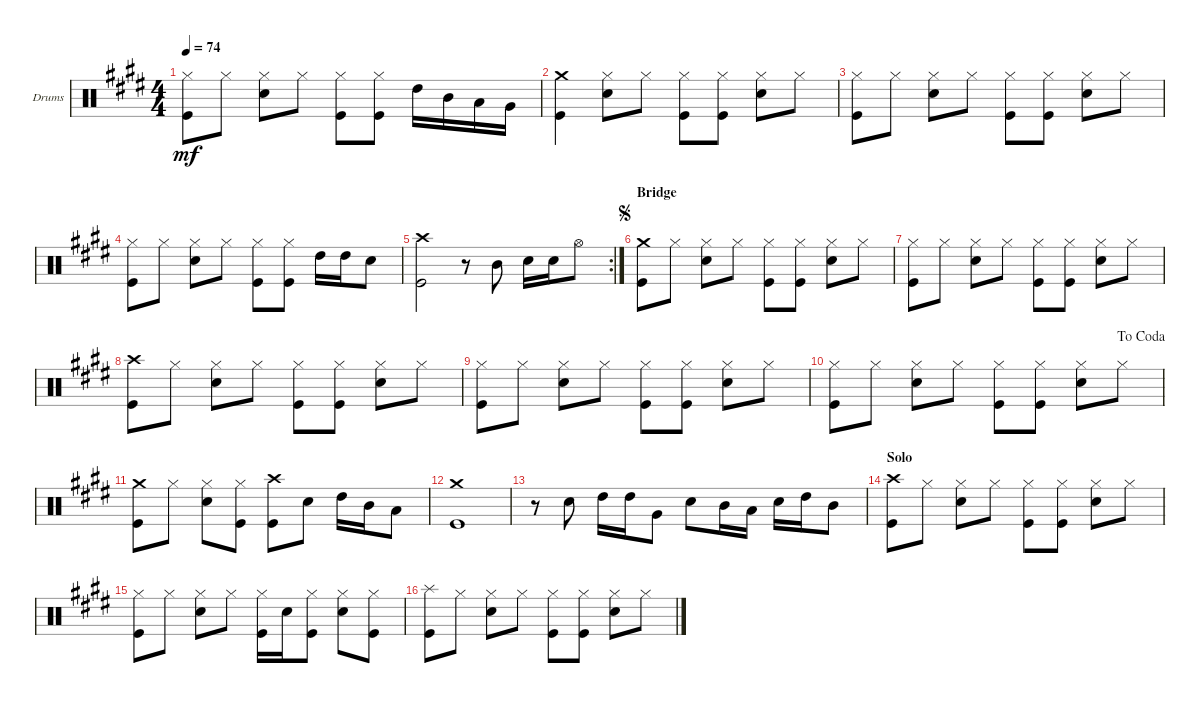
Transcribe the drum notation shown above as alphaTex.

\bracketExtendMode groupsimilarinstruments
\useSystemSignSeparator
\multiTrackTrackNamePolicy allsystems
\firstSystemTrackNameOrientation horizontal
\otherSystemsTrackNameOrientation horizontal
\track ("Drums" "Drums") {instrument percussion}
\staff {score}
\articulation defaults
\ts (4 4)
\tempo 74
\clef neutral
\ks c#minor
("Kick (hit)" "Hi-Hat (closed)").8{dy mf} "Hi-Hat (closed)".8 ("Snare (hit) 2" "Hi-Hat (closed)").8 "Hi-Hat (closed)".8 ("Kick (hit)" "Hi-Hat (closed)").8 ("Kick (hit)" "Hi-Hat (closed)").8 "High Tom (hit)".16 "Mid Tom (hit)".16 "Low Tom (hit)".16 "Very Low Tom (hit)".16 |
("Kick (hit)" "Crash medium (hit)").4 ("Snare (hit) 2" "Hi-Hat (closed)").8 "Hi-Hat (closed)".8 ("Kick (hit)" "Hi-Hat (closed)").8 ("Kick (hit)" "Hi-Hat (closed)").8 ("Snare (hit) 2" "Hi-Hat (closed)").8 "Hi-Hat (closed)".8 |
("Kick (hit)" "Hi-Hat (closed)").8 "Hi-Hat (closed)".8 ("Snare (hit) 2" "Hi-Hat (closed)").8 "Hi-Hat (closed)".8 ("Kick (hit)" "Hi-Hat (closed)").8 ("Kick (hit)" "Hi-Hat (closed)").8 ("Snare (hit) 2" "Hi-Hat (closed)").8 "Hi-Hat (closed)".8 |
("Kick (hit)" "Hi-Hat (closed)").8 "Hi-Hat (closed)".8 ("Snare (hit) 2" "Hi-Hat (closed)").8 "Hi-Hat (closed)".8 ("Kick (hit)" "Hi-Hat (closed)").8 ("Kick (hit)" "Hi-Hat (closed)").8 "High Tom (hit)".16 "High Tom (hit)".16 "Snare (hit) 2".8 |
\rc 2
("Kick (hit)" "Crash high (hit)").2 r.8 "Mid Tom (hit)".8 "Snare (hit) 2".16 "Snare (hit) 2".16 "Hi-Hat (open)".8 |
\section ("" "Bridge")
\jump segno
("Kick (hit)" "Crash medium (hit)").8 "Hi-Hat (closed)".8 ("Snare (hit) 2" "Hi-Hat (closed)").8 "Hi-Hat (closed)".8 ("Kick (hit)" "Hi-Hat (closed)").8 ("Kick (hit)" "Hi-Hat (closed)").8 ("Snare (hit) 2" "Hi-Hat (closed)").8 "Hi-Hat (closed)".8 |
("Kick (hit)" "Hi-Hat (closed)").8 "Hi-Hat (closed)".8 ("Snare (hit) 2" "Hi-Hat (closed)").8 "Hi-Hat (closed)".8 ("Kick (hit)" "Hi-Hat (closed)").8 ("Kick (hit)" "Hi-Hat (closed)").8 ("Snare (hit) 2" "Hi-Hat (closed)").8 "Hi-Hat (closed)".8 |
("Kick (hit)" "Crash high (hit)").8 "Hi-Hat (closed)".8 ("Snare (hit) 2" "Hi-Hat (closed)").8 "Hi-Hat (closed)".8 ("Kick (hit)" "Hi-Hat (closed)").8 ("Kick (hit)" "Hi-Hat (closed)").8 ("Snare (hit) 2" "Hi-Hat (closed)").8 "Hi-Hat (closed)".8 |
("Kick (hit)" "Hi-Hat (closed)").8 "Hi-Hat (closed)".8 ("Snare (hit) 2" "Hi-Hat (closed)").8 "Hi-Hat (closed)".8 ("Kick (hit)" "Hi-Hat (closed)").8 ("Kick (hit)" "Hi-Hat (closed)").8 ("Snare (hit) 2" "Hi-Hat (closed)").8 "Hi-Hat (closed)".8 |
\jump dacoda
("Kick (hit)" "Hi-Hat (closed)").8 "Hi-Hat (closed)".8 ("Snare (hit) 2" "Hi-Hat (closed)").8 "Hi-Hat (closed)".8 ("Kick (hit)" "Hi-Hat (closed)").8 ("Kick (hit)" "Hi-Hat (closed)").8 ("Snare (hit) 2" "Hi-Hat (closed)").8 "Hi-Hat (closed)".8 |
("Kick (hit)" "Crash medium (hit)").8 "Hi-Hat (closed)".8 ("Snare (hit) 2" "Hi-Hat (closed)").8 ("Kick (hit)" "Hi-Hat (closed)").8 ("Kick (hit)" "Crash high (hit)").8 "Snare (hit) 2".8 "High Tom (hit)".16 "Mid Tom (hit)".16 "Low Tom (hit)".8 |
("Kick (hit)" "Crash medium (hit)").1 |
r.8 "Snare (hit) 2".8 "High Tom (hit)".16 "High Tom (hit)".16 "Very Low Tom (hit)".8 "Snare (hit) 2".8 "Mid Tom (hit)".16 "Low Tom (hit)".16 "Snare (hit) 2".16 "High Tom (hit)".16 "Mid Tom (hit)".8 |
\section ("" "Solo")
("Kick (hit)" "Crash high (hit)").8 "Hi-Hat (closed)".8 ("Snare (hit) 2" "Hi-Hat (closed)").8 "Hi-Hat (closed)".8 ("Kick (hit)" "Hi-Hat (closed)").8 ("Kick (hit)" "Hi-Hat (closed)").8 ("Snare (hit) 2" "Hi-Hat (closed)").8 "Hi-Hat (closed)".8 |
("Kick (hit)" "Hi-Hat (closed)").8 "Hi-Hat (closed)".8 ("Snare (hit) 2" "Hi-Hat (closed)").8 "Hi-Hat (closed)".8 ("Kick (hit)" "Hi-Hat (closed)").16 "Snare (hit) 2".16 ("Kick (hit)" "Hi-Hat (closed)").8 ("Snare (hit) 2" "Hi-Hat (closed)").8 ("Kick (hit)" "Hi-Hat (closed)").8 |
("Kick (hit)" "Splash (hit)").8 "Hi-Hat (closed)".8 ("Snare (hit) 2" "Hi-Hat (closed)").8 "Hi-Hat (closed)".8 ("Kick (hit)" "Hi-Hat (closed)").8 ("Kick (hit)" "Hi-Hat (closed)").8 ("Snare (hit) 2" "Hi-Hat (closed)").8 "Hi-Hat (closed)".8
